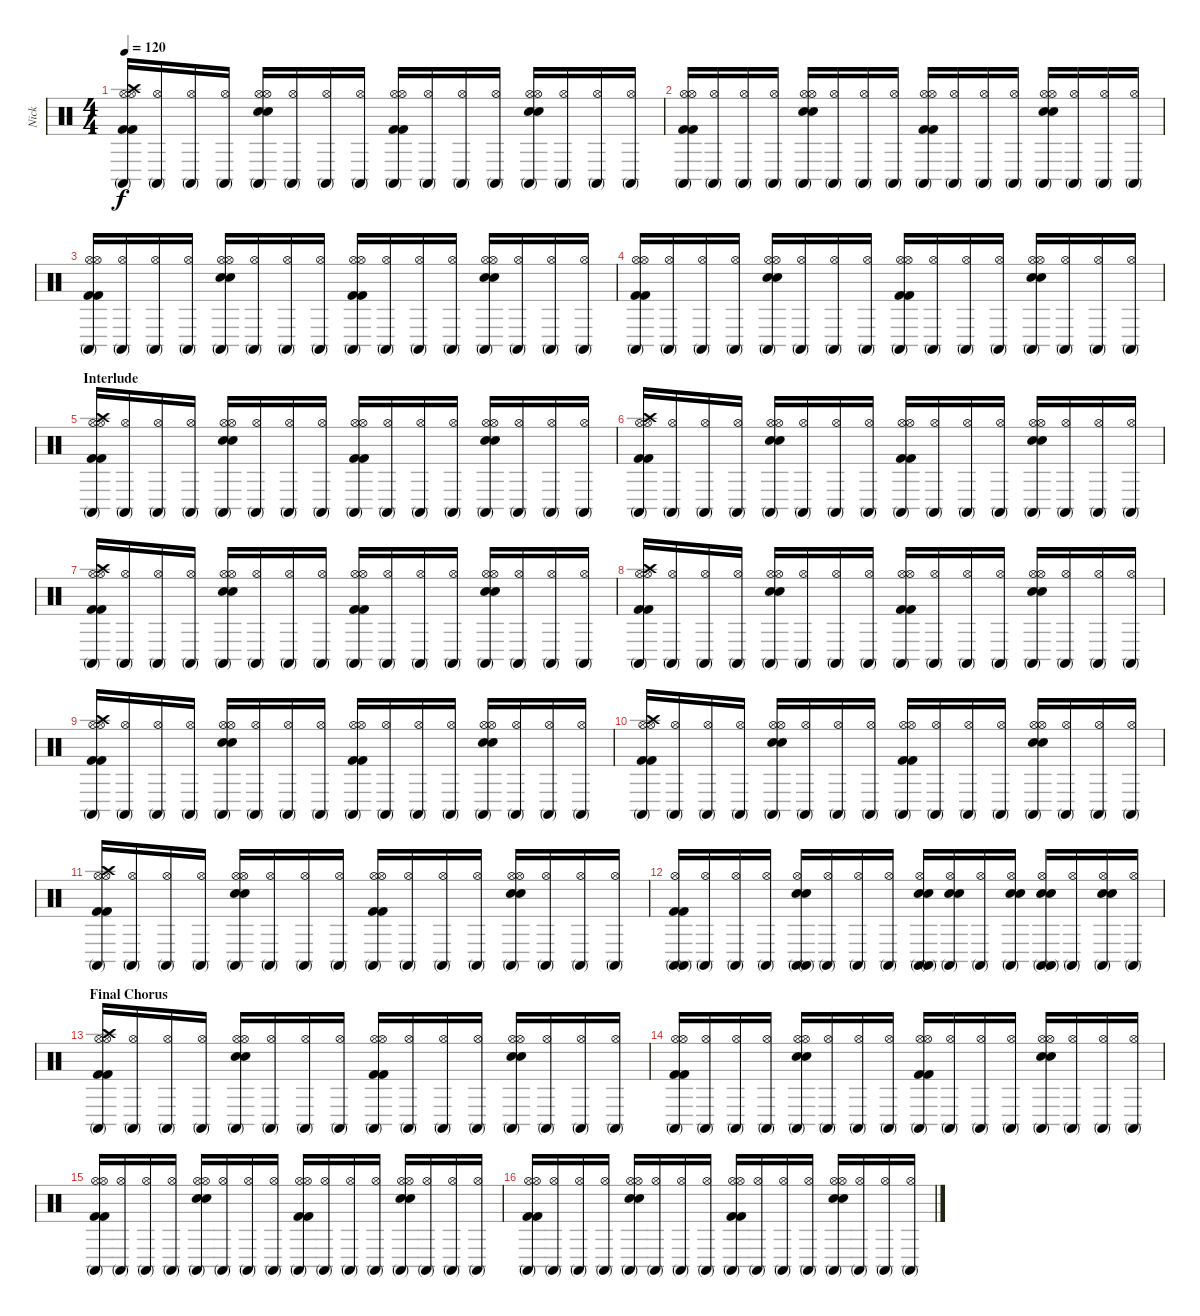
\track ("Nick" "Nick") {instrument percussion}
\staff {score}
\articulation defaults
\ts (4 4)
\tempo 120
\clef neutral
\ks c
("Hi-Hat (open)" "Hi-Hat (open)" "Crash high (hit)" "Kick (hit) 2" "Kick (hit) 2" "Conga high (mute)").16{dy f} ("Hi-Hat (open)" "Conga high (mute)").16 ("Hi-Hat (open)" "Conga high (mute)").16 ("Hi-Hat (open)" "Conga high (mute)").16 ("Hi-Hat (open)" "Hi-Hat (open)" "Snare (hit) 2" "Snare (hit) 2" "Conga high (mute)").16 ("Hi-Hat (open)" "Conga high (mute)").16 ("Hi-Hat (open)" "Conga high (mute)").16 ("Hi-Hat (open)" "Conga high (mute)").16 ("Hi-Hat (open)" "Hi-Hat (open)" "Kick (hit) 2" "Kick (hit) 2" "Conga high (mute)").16 ("Hi-Hat (open)" "Conga high (mute)").16 ("Hi-Hat (open)" "Conga high (mute)").16 ("Hi-Hat (open)" "Conga high (mute)").16 ("Hi-Hat (open)" "Hi-Hat (open)" "Snare (hit) 2" "Snare (hit) 2" "Conga high (mute)").16 ("Hi-Hat (open)" "Conga high (mute)").16 ("Hi-Hat (open)" "Conga high (mute)").16 ("Hi-Hat (open)" "Conga high (mute)").16 |
("Hi-Hat (open)" "Hi-Hat (open)" "Kick (hit) 2" "Kick (hit) 2" "Conga high (mute)").16 ("Hi-Hat (open)" "Conga high (mute)").16 ("Hi-Hat (open)" "Conga high (mute)").16 ("Hi-Hat (open)" "Conga high (mute)").16 ("Hi-Hat (open)" "Hi-Hat (open)" "Snare (hit) 2" "Snare (hit) 2" "Conga high (mute)").16 ("Hi-Hat (open)" "Conga high (mute)").16 ("Hi-Hat (open)" "Conga high (mute)").16 ("Hi-Hat (open)" "Conga high (mute)").16 ("Hi-Hat (open)" "Hi-Hat (open)" "Kick (hit) 2" "Kick (hit) 2" "Conga high (mute)").16 ("Hi-Hat (open)" "Conga high (mute)").16 ("Hi-Hat (open)" "Conga high (mute)").16 ("Hi-Hat (open)" "Conga high (mute)").16 ("Hi-Hat (open)" "Hi-Hat (open)" "Snare (hit) 2" "Snare (hit) 2" "Conga high (mute)").16 ("Hi-Hat (open)" "Conga high (mute)").16 ("Hi-Hat (open)" "Conga high (mute)").16 ("Hi-Hat (open)" "Conga high (mute)").16 |
("Hi-Hat (open)" "Hi-Hat (open)" "Kick (hit) 2" "Kick (hit) 2" "Conga high (mute)").16 ("Hi-Hat (open)" "Conga high (mute)").16 ("Hi-Hat (open)" "Conga high (mute)").16 ("Hi-Hat (open)" "Conga high (mute)").16 ("Hi-Hat (open)" "Hi-Hat (open)" "Snare (hit) 2" "Snare (hit) 2" "Conga high (mute)").16 ("Hi-Hat (open)" "Conga high (mute)").16 ("Hi-Hat (open)" "Conga high (mute)").16 ("Hi-Hat (open)" "Conga high (mute)").16 ("Hi-Hat (open)" "Hi-Hat (open)" "Kick (hit) 2" "Kick (hit) 2" "Conga high (mute)").16 ("Hi-Hat (open)" "Conga high (mute)").16 ("Hi-Hat (open)" "Conga high (mute)").16 ("Hi-Hat (open)" "Conga high (mute)").16 ("Hi-Hat (open)" "Hi-Hat (open)" "Snare (hit) 2" "Snare (hit) 2" "Conga high (mute)").16 ("Hi-Hat (open)" "Conga high (mute)").16 ("Hi-Hat (open)" "Conga high (mute)").16 ("Hi-Hat (open)" "Conga high (mute)").16 |
("Hi-Hat (open)" "Hi-Hat (open)" "Kick (hit) 2" "Kick (hit) 2" "Conga high (mute)").16 ("Hi-Hat (open)" "Conga high (mute)").16 ("Hi-Hat (open)" "Conga high (mute)").16 ("Hi-Hat (open)" "Conga high (mute)").16 ("Hi-Hat (open)" "Hi-Hat (open)" "Snare (hit) 2" "Snare (hit) 2" "Conga high (mute)").16 ("Hi-Hat (open)" "Conga high (mute)").16 ("Hi-Hat (open)" "Conga high (mute)").16 ("Hi-Hat (open)" "Conga high (mute)").16 ("Hi-Hat (open)" "Hi-Hat (open)" "Kick (hit) 2" "Kick (hit) 2" "Conga high (mute)").16 ("Hi-Hat (open)" "Conga high (mute)").16 ("Hi-Hat (open)" "Conga high (mute)").16 ("Hi-Hat (open)" "Conga high (mute)").16 ("Hi-Hat (open)" "Hi-Hat (open)" "Snare (hit) 2" "Snare (hit) 2" "Conga high (mute)").16 ("Hi-Hat (open)" "Conga high (mute)").16 ("Hi-Hat (open)" "Conga high (mute)").16 ("Hi-Hat (open)" "Conga high (mute)").16 |
\section ("" "Interlude")
("Hi-Hat (open)" "Hi-Hat (open)" "Crash high (hit)" "Kick (hit) 2" "Kick (hit) 2" "Conga high (mute)").16 ("Hi-Hat (open)" "Conga high (mute)").16 ("Hi-Hat (open)" "Conga high (mute)").16 ("Hi-Hat (open)" "Conga high (mute)").16 ("Hi-Hat (open)" "Hi-Hat (open)" "Snare (hit) 2" "Snare (hit) 2" "Conga high (mute)").16 ("Hi-Hat (open)" "Conga high (mute)").16 ("Hi-Hat (open)" "Conga high (mute)").16 ("Hi-Hat (open)" "Conga high (mute)").16 ("Hi-Hat (open)" "Hi-Hat (open)" "Kick (hit) 2" "Kick (hit) 2" "Conga high (mute)").16 ("Hi-Hat (open)" "Conga high (mute)").16 ("Hi-Hat (open)" "Conga high (mute)").16 ("Hi-Hat (open)" "Conga high (mute)").16 ("Hi-Hat (open)" "Hi-Hat (open)" "Snare (hit) 2" "Snare (hit) 2" "Conga high (mute)").16 ("Hi-Hat (open)" "Conga high (mute)").16 ("Hi-Hat (open)" "Conga high (mute)").16 ("Hi-Hat (open)" "Conga high (mute)").16 |
("Hi-Hat (open)" "Hi-Hat (open)" "Crash high (hit)" "Kick (hit) 2" "Kick (hit) 2" "Conga high (mute)").16 ("Hi-Hat (open)" "Conga high (mute)").16 ("Hi-Hat (open)" "Conga high (mute)").16 ("Hi-Hat (open)" "Conga high (mute)").16 ("Hi-Hat (open)" "Hi-Hat (open)" "Snare (hit) 2" "Snare (hit) 2" "Conga high (mute)").16 ("Hi-Hat (open)" "Conga high (mute)").16 ("Hi-Hat (open)" "Conga high (mute)").16 ("Hi-Hat (open)" "Conga high (mute)").16 ("Hi-Hat (open)" "Hi-Hat (open)" "Kick (hit) 2" "Kick (hit) 2" "Conga high (mute)").16 ("Hi-Hat (open)" "Conga high (mute)").16 ("Hi-Hat (open)" "Conga high (mute)").16 ("Hi-Hat (open)" "Conga high (mute)").16 ("Hi-Hat (open)" "Hi-Hat (open)" "Snare (hit) 2" "Snare (hit) 2" "Conga high (mute)").16 ("Hi-Hat (open)" "Conga high (mute)").16 ("Hi-Hat (open)" "Conga high (mute)").16 ("Hi-Hat (open)" "Conga high (mute)").16 |
("Hi-Hat (open)" "Hi-Hat (open)" "Crash high (hit)" "Kick (hit) 2" "Kick (hit) 2" "Conga high (mute)").16 ("Hi-Hat (open)" "Conga high (mute)").16 ("Hi-Hat (open)" "Conga high (mute)").16 ("Hi-Hat (open)" "Conga high (mute)").16 ("Hi-Hat (open)" "Hi-Hat (open)" "Snare (hit) 2" "Snare (hit) 2" "Conga high (mute)").16 ("Hi-Hat (open)" "Conga high (mute)").16 ("Hi-Hat (open)" "Conga high (mute)").16 ("Hi-Hat (open)" "Conga high (mute)").16 ("Hi-Hat (open)" "Hi-Hat (open)" "Kick (hit) 2" "Kick (hit) 2" "Conga high (mute)").16 ("Hi-Hat (open)" "Conga high (mute)").16 ("Hi-Hat (open)" "Conga high (mute)").16 ("Hi-Hat (open)" "Conga high (mute)").16 ("Hi-Hat (open)" "Hi-Hat (open)" "Snare (hit) 2" "Snare (hit) 2" "Conga high (mute)").16 ("Hi-Hat (open)" "Conga high (mute)").16 ("Hi-Hat (open)" "Conga high (mute)").16 ("Hi-Hat (open)" "Conga high (mute)").16 |
("Hi-Hat (open)" "Hi-Hat (open)" "Crash high (hit)" "Kick (hit) 2" "Kick (hit) 2" "Conga high (mute)").16 ("Hi-Hat (open)" "Conga high (mute)").16 ("Hi-Hat (open)" "Conga high (mute)").16 ("Hi-Hat (open)" "Conga high (mute)").16 ("Hi-Hat (open)" "Hi-Hat (open)" "Snare (hit) 2" "Snare (hit) 2" "Conga high (mute)").16 ("Hi-Hat (open)" "Conga high (mute)").16 ("Hi-Hat (open)" "Conga high (mute)").16 ("Hi-Hat (open)" "Conga high (mute)").16 ("Hi-Hat (open)" "Hi-Hat (open)" "Kick (hit) 2" "Kick (hit) 2" "Conga high (mute)").16 ("Hi-Hat (open)" "Conga high (mute)").16 ("Hi-Hat (open)" "Conga high (mute)").16 ("Hi-Hat (open)" "Conga high (mute)").16 ("Hi-Hat (open)" "Hi-Hat (open)" "Snare (hit) 2" "Snare (hit) 2" "Conga high (mute)").16 ("Hi-Hat (open)" "Conga high (mute)").16 ("Hi-Hat (open)" "Conga high (mute)").16 ("Hi-Hat (open)" "Conga high (mute)").16 |
("Hi-Hat (open)" "Hi-Hat (open)" "Crash high (hit)" "Kick (hit) 2" "Kick (hit) 2" "Conga high (mute)").16 ("Hi-Hat (open)" "Conga high (mute)").16 ("Hi-Hat (open)" "Conga high (mute)").16 ("Hi-Hat (open)" "Conga high (mute)").16 ("Hi-Hat (open)" "Hi-Hat (open)" "Snare (hit) 2" "Snare (hit) 2" "Conga high (mute)").16 ("Hi-Hat (open)" "Conga high (mute)").16 ("Hi-Hat (open)" "Conga high (mute)").16 ("Hi-Hat (open)" "Conga high (mute)").16 ("Hi-Hat (open)" "Hi-Hat (open)" "Kick (hit) 2" "Kick (hit) 2" "Conga high (mute)").16 ("Hi-Hat (open)" "Conga high (mute)").16 ("Hi-Hat (open)" "Conga high (mute)").16 ("Hi-Hat (open)" "Conga high (mute)").16 ("Hi-Hat (open)" "Hi-Hat (open)" "Snare (hit) 2" "Snare (hit) 2" "Conga high (mute)").16 ("Hi-Hat (open)" "Conga high (mute)").16 ("Hi-Hat (open)" "Conga high (mute)").16 ("Hi-Hat (open)" "Conga high (mute)").16 |
("Hi-Hat (open)" "Hi-Hat (open)" "Crash high (hit)" "Kick (hit) 2" "Kick (hit) 2" "Conga high (mute)").16 ("Hi-Hat (open)" "Conga high (mute)").16 ("Hi-Hat (open)" "Conga high (mute)").16 ("Hi-Hat (open)" "Conga high (mute)").16 ("Hi-Hat (open)" "Hi-Hat (open)" "Snare (hit) 2" "Snare (hit) 2" "Conga high (mute)").16 ("Hi-Hat (open)" "Conga high (mute)").16 ("Hi-Hat (open)" "Conga high (mute)").16 ("Hi-Hat (open)" "Conga high (mute)").16 ("Hi-Hat (open)" "Hi-Hat (open)" "Kick (hit) 2" "Kick (hit) 2" "Conga high (mute)").16 ("Hi-Hat (open)" "Conga high (mute)").16 ("Hi-Hat (open)" "Conga high (mute)").16 ("Hi-Hat (open)" "Conga high (mute)").16 ("Hi-Hat (open)" "Hi-Hat (open)" "Snare (hit) 2" "Snare (hit) 2" "Conga high (mute)").16 ("Hi-Hat (open)" "Conga high (mute)").16 ("Hi-Hat (open)" "Conga high (mute)").16 ("Hi-Hat (open)" "Conga high (mute)").16 |
("Hi-Hat (open)" "Hi-Hat (open)" "Crash high (hit)" "Kick (hit) 2" "Kick (hit) 2" "Conga high (mute)").16 ("Hi-Hat (open)" "Conga high (mute)").16 ("Hi-Hat (open)" "Conga high (mute)").16 ("Hi-Hat (open)" "Conga high (mute)").16 ("Hi-Hat (open)" "Hi-Hat (open)" "Snare (hit) 2" "Snare (hit) 2" "Conga high (mute)").16 ("Hi-Hat (open)" "Conga high (mute)").16 ("Hi-Hat (open)" "Conga high (mute)").16 ("Hi-Hat (open)" "Conga high (mute)").16 ("Hi-Hat (open)" "Hi-Hat (open)" "Kick (hit) 2" "Kick (hit) 2" "Conga high (mute)").16 ("Hi-Hat (open)" "Conga high (mute)").16 ("Hi-Hat (open)" "Conga high (mute)").16 ("Hi-Hat (open)" "Conga high (mute)").16 ("Hi-Hat (open)" "Hi-Hat (open)" "Snare (hit) 2" "Snare (hit) 2" "Conga high (mute)").16 ("Hi-Hat (open)" "Conga high (mute)").16 ("Hi-Hat (open)" "Conga high (mute)").16 ("Hi-Hat (open)" "Conga high (mute)").16 |
("Conga high (mute)" "Hi-Hat (open)" "Kick (hit) 2" "Kick (hit) 2" "Conga high (mute)").16 ("Hi-Hat (open)" "Conga high (mute)").16 ("Hi-Hat (open)" "Conga high (mute)").16 ("Hi-Hat (open)" "Conga high (mute)").16 ("Conga high (mute)" "Hi-Hat (open)" "Snare (hit) 2" "Snare (hit) 2" "Conga high (mute)").16 ("Hi-Hat (open)" "Conga high (mute)").16 ("Hi-Hat (open)" "Conga high (mute)").16 ("Hi-Hat (open)" "Conga high (mute)").16 ("Conga high (mute)" "Hi-Hat (open)" "Snare (hit) 2" "Snare (hit) 2" "Conga high (mute)").16 ("Hi-Hat (open)" "Snare (hit) 2" "Snare (hit) 2" "Conga high (mute)").16 ("Hi-Hat (open)" "Conga high (mute)").16 ("Hi-Hat (open)" "Snare (hit) 2" "Snare (hit) 2" "Conga high (mute)").16 ("Conga high (mute)" "Hi-Hat (open)" "Snare (hit) 2" "Snare (hit) 2" "Conga high (mute)").16 ("Hi-Hat (open)" "Conga high (mute)").16 ("Hi-Hat (open)" "Snare (hit) 2" "Snare (hit) 2" "Conga high (mute)").16 ("Hi-Hat (open)" "Conga high (mute)").16 |
\section ("" "Final Chorus")
("Hi-Hat (open)" "Hi-Hat (open)" "Crash high (hit)" "Kick (hit) 2" "Kick (hit) 2" "Conga high (mute)").16 ("Hi-Hat (open)" "Conga high (mute)").16 ("Hi-Hat (open)" "Conga high (mute)").16 ("Hi-Hat (open)" "Conga high (mute)").16 ("Hi-Hat (open)" "Hi-Hat (open)" "Snare (hit) 2" "Snare (hit) 2" "Conga high (mute)").16 ("Hi-Hat (open)" "Conga high (mute)").16 ("Hi-Hat (open)" "Conga high (mute)").16 ("Hi-Hat (open)" "Conga high (mute)").16 ("Hi-Hat (open)" "Hi-Hat (open)" "Kick (hit) 2" "Kick (hit) 2" "Conga high (mute)").16 ("Hi-Hat (open)" "Conga high (mute)").16 ("Hi-Hat (open)" "Conga high (mute)").16 ("Hi-Hat (open)" "Conga high (mute)").16 ("Hi-Hat (open)" "Hi-Hat (open)" "Snare (hit) 2" "Snare (hit) 2" "Conga high (mute)").16 ("Hi-Hat (open)" "Conga high (mute)").16 ("Hi-Hat (open)" "Conga high (mute)").16 ("Hi-Hat (open)" "Conga high (mute)").16 |
("Hi-Hat (open)" "Hi-Hat (open)" "Kick (hit) 2" "Kick (hit) 2" "Conga high (mute)").16 ("Hi-Hat (open)" "Conga high (mute)").16 ("Hi-Hat (open)" "Conga high (mute)").16 ("Hi-Hat (open)" "Conga high (mute)").16 ("Hi-Hat (open)" "Hi-Hat (open)" "Snare (hit) 2" "Snare (hit) 2" "Conga high (mute)").16 ("Hi-Hat (open)" "Conga high (mute)").16 ("Hi-Hat (open)" "Conga high (mute)").16 ("Hi-Hat (open)" "Conga high (mute)").16 ("Hi-Hat (open)" "Hi-Hat (open)" "Kick (hit) 2" "Kick (hit) 2" "Conga high (mute)").16 ("Hi-Hat (open)" "Conga high (mute)").16 ("Hi-Hat (open)" "Conga high (mute)").16 ("Hi-Hat (open)" "Conga high (mute)").16 ("Hi-Hat (open)" "Hi-Hat (open)" "Snare (hit) 2" "Snare (hit) 2" "Conga high (mute)").16 ("Hi-Hat (open)" "Conga high (mute)").16 ("Hi-Hat (open)" "Conga high (mute)").16 ("Hi-Hat (open)" "Conga high (mute)").16 |
("Hi-Hat (open)" "Hi-Hat (open)" "Kick (hit) 2" "Kick (hit) 2" "Conga high (mute)").16 ("Hi-Hat (open)" "Conga high (mute)").16 ("Hi-Hat (open)" "Conga high (mute)").16 ("Hi-Hat (open)" "Conga high (mute)").16 ("Hi-Hat (open)" "Hi-Hat (open)" "Snare (hit) 2" "Snare (hit) 2" "Conga high (mute)").16 ("Hi-Hat (open)" "Conga high (mute)").16 ("Hi-Hat (open)" "Conga high (mute)").16 ("Hi-Hat (open)" "Conga high (mute)").16 ("Hi-Hat (open)" "Hi-Hat (open)" "Kick (hit) 2" "Kick (hit) 2" "Conga high (mute)").16 ("Hi-Hat (open)" "Conga high (mute)").16 ("Hi-Hat (open)" "Conga high (mute)").16 ("Hi-Hat (open)" "Conga high (mute)").16 ("Hi-Hat (open)" "Hi-Hat (open)" "Snare (hit) 2" "Snare (hit) 2" "Conga high (mute)").16 ("Hi-Hat (open)" "Conga high (mute)").16 ("Hi-Hat (open)" "Conga high (mute)").16 ("Hi-Hat (open)" "Conga high (mute)").16 |
("Hi-Hat (open)" "Hi-Hat (open)" "Kick (hit) 2" "Kick (hit) 2" "Conga high (mute)").16 ("Hi-Hat (open)" "Conga high (mute)").16 ("Hi-Hat (open)" "Conga high (mute)").16 ("Hi-Hat (open)" "Conga high (mute)").16 ("Hi-Hat (open)" "Hi-Hat (open)" "Snare (hit) 2" "Snare (hit) 2" "Conga high (mute)").16 ("Hi-Hat (open)" "Conga high (mute)").16 ("Hi-Hat (open)" "Conga high (mute)").16 ("Hi-Hat (open)" "Conga high (mute)").16 ("Hi-Hat (open)" "Hi-Hat (open)" "Kick (hit) 2" "Kick (hit) 2" "Conga high (mute)").16 ("Hi-Hat (open)" "Conga high (mute)").16 ("Hi-Hat (open)" "Conga high (mute)").16 ("Hi-Hat (open)" "Conga high (mute)").16 ("Hi-Hat (open)" "Hi-Hat (open)" "Snare (hit) 2" "Snare (hit) 2" "Conga high (mute)").16 ("Hi-Hat (open)" "Conga high (mute)").16 ("Hi-Hat (open)" "Conga high (mute)").16 ("Hi-Hat (open)" "Conga high (mute)").16
